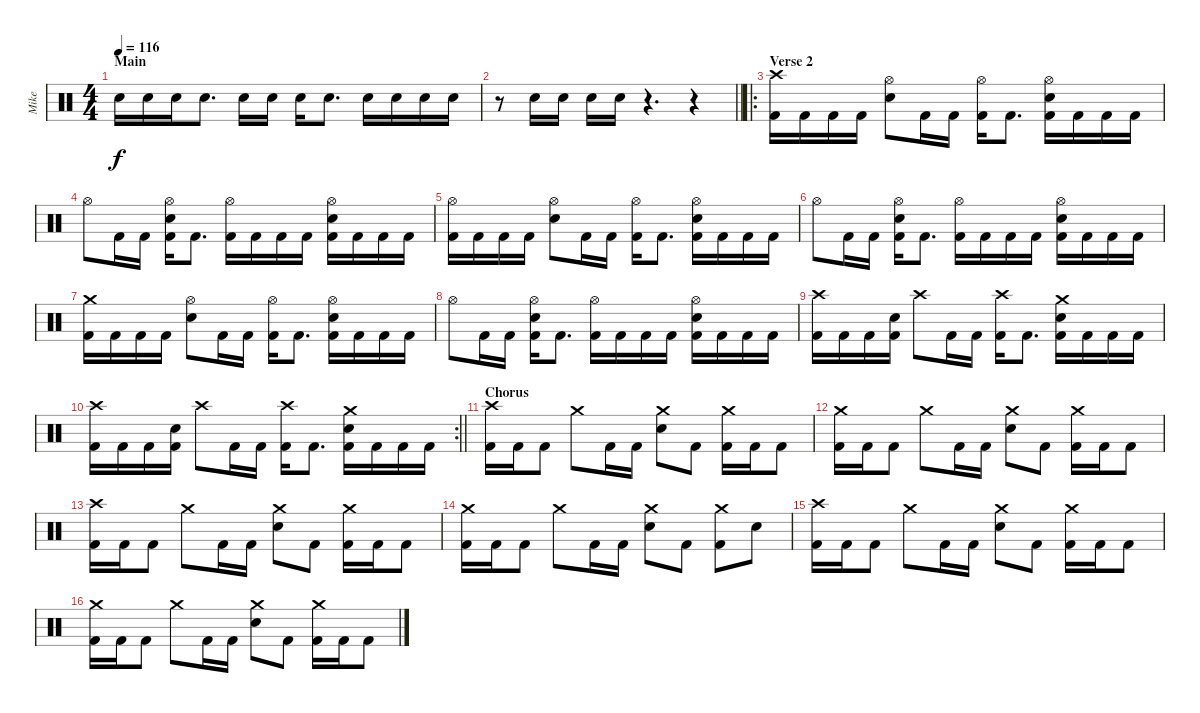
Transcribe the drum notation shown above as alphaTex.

\track ("Mike" "Mike") {instrument percussion}
\staff {score}
\articulation defaults
\ts (4 4)
\section ("" "Main")
\tempo 116
\clef neutral
\ks c "Snare (hit) 2".16{dy f} "Snare (hit) 2".16 "Snare (hit) 2".16 "Snare (hit) 2".8{d} "Snare (hit) 2".16 "Snare (hit) 2".16 "Snare (hit) 2".16 "Snare (hit) 2".8{d} "Snare (hit) 2".16 "Snare (hit) 2".16 "Snare (hit) 2".16 "Snare (hit) 2".16
|
\barLineRight lightlight
r.8 "Snare (hit) 2".16 "Snare (hit) 2".16 "Snare (hit) 2".16 "Snare (hit) 2".16 r.4{d} r.4 |
\ro
\section ("" "Verse 2")
("Crash high (hit)" "Kick (hit) 2").16 "Kick (hit) 2".16 "Kick (hit) 2".16 "Kick (hit) 2".16 ("Snare (hit) 2" "Hi-Hat (open)").8 "Kick (hit) 2".16 "Kick (hit) 2".16 ("Hi-Hat (open)" "Kick (hit) 2").16 "Kick (hit) 2".8{d} ("Snare (hit) 2" "Hi-Hat (open)" "Kick (hit) 2").16 "Kick (hit) 2".16 "Kick (hit) 2".16 "Kick (hit) 2".16 |
"Hi-Hat (open)".8 "Kick (hit) 2".16 "Kick (hit) 2".16 ("Snare (hit) 2" "Hi-Hat (open)" "Kick (hit) 2").16 "Kick (hit) 2".8{d} ("Hi-Hat (open)" "Kick (hit) 2").16 "Kick (hit) 2".16 "Kick (hit) 2".16 "Kick (hit) 2".16 ("Snare (hit) 2" "Hi-Hat (open)" "Kick (hit) 2").16 "Kick (hit) 2".16 "Kick (hit) 2".16 "Kick (hit) 2".16 |
("Hi-Hat (open)" "Kick (hit) 2").16 "Kick (hit) 2".16 "Kick (hit) 2".16 "Kick (hit) 2".16 ("Snare (hit) 2" "Hi-Hat (open)").8 "Kick (hit) 2".16 "Kick (hit) 2".16 ("Hi-Hat (open)" "Kick (hit) 2").16 "Kick (hit) 2".8{d} ("Snare (hit) 2" "Hi-Hat (open)" "Kick (hit) 2").16 "Kick (hit) 2".16 "Kick (hit) 2".16 "Kick (hit) 2".16 |
"Hi-Hat (open)".8 "Kick (hit) 2".16 "Kick (hit) 2".16 ("Snare (hit) 2" "Hi-Hat (open)" "Kick (hit) 2").16 "Kick (hit) 2".8{d} ("Hi-Hat (open)" "Kick (hit) 2").16 "Kick (hit) 2".16 "Kick (hit) 2".16 "Kick (hit) 2".16 ("Snare (hit) 2" "Hi-Hat (open)" "Kick (hit) 2").16 "Kick (hit) 2".16 "Kick (hit) 2".16 "Kick (hit) 2".16 |
("Crash medium (hit)" "Kick (hit) 2").16 "Kick (hit) 2".16 "Kick (hit) 2".16 "Kick (hit) 2".16 ("Snare (hit) 2" "Hi-Hat (open)").8 "Kick (hit) 2".16 "Kick (hit) 2".16 ("Hi-Hat (open)" "Kick (hit) 2").16 "Kick (hit) 2".8{d} ("Snare (hit) 2" "Hi-Hat (open)" "Kick (hit) 2").16 "Kick (hit) 2".16 "Kick (hit) 2".16 "Kick (hit) 2".16 |
"Hi-Hat (open)".8 "Kick (hit) 2".16 "Kick (hit) 2".16 ("Snare (hit) 2" "Hi-Hat (open)" "Kick (hit) 2").16 "Kick (hit) 2".8{d} ("Hi-Hat (open)" "Kick (hit) 2").16 "Kick (hit) 2".16 "Kick (hit) 2".16 "Kick (hit) 2".16 ("Snare (hit) 2" "Hi-Hat (open)" "Kick (hit) 2").16 "Kick (hit) 2".16 "Kick (hit) 2".16 "Kick (hit) 2".16 |
("Crash high (hit)" "Kick (hit) 2").16 "Kick (hit) 2".16 "Kick (hit) 2".16 ("Snare (hit) 2" "Kick (hit) 2").16 "Crash high (hit)".8 "Kick (hit) 2".16 "Kick (hit) 2".16 ("Crash high (hit)" "Kick (hit) 2").16 "Kick (hit) 2".8{d} ("Crash medium (hit)" "Snare (hit) 2" "Kick (hit) 2").16 "Kick (hit) 2".16 "Kick (hit) 2".16 "Kick (hit) 2".16 |
\rc 2
\barLineRight lightlight
("Crash high (hit)" "Kick (hit) 2").16 "Kick (hit) 2".16 "Kick (hit) 2".16 ("Snare (hit) 2" "Kick (hit) 2").16 "Crash high (hit)".8 "Kick (hit) 2".16 "Kick (hit) 2".16 ("Crash high (hit)" "Kick (hit) 2").16 "Kick (hit) 2".8{d} ("Crash medium (hit)" "Snare (hit) 2" "Kick (hit) 2").16 "Kick (hit) 2".16 "Kick (hit) 2".16 "Kick (hit) 2".16 |
\section ("" "Chorus")
("Crash high (hit)" "Kick (hit) 2").16 "Kick (hit) 2".16 "Kick (hit) 2".8 "Crash medium (hit)".8 "Kick (hit) 2".16 "Kick (hit) 2".16 ("Crash medium (hit)" "Snare (hit) 2").8 "Kick (hit) 2".8 ("Crash medium (hit)" "Kick (hit) 2").16 "Kick (hit) 2".16 "Kick (hit) 2".8 |
("Crash medium (hit)" "Kick (hit) 2").16 "Kick (hit) 2".16 "Kick (hit) 2".8 "Crash medium (hit)".8 "Kick (hit) 2".16 "Kick (hit) 2".16 ("Crash medium (hit)" "Snare (hit) 2").8 "Kick (hit) 2".8 ("Crash medium (hit)" "Kick (hit) 2").16 "Kick (hit) 2".16 "Kick (hit) 2".8 |
("Crash high (hit)" "Kick (hit) 2").16 "Kick (hit) 2".16 "Kick (hit) 2".8 "Crash medium (hit)".8 "Kick (hit) 2".16 "Kick (hit) 2".16 ("Crash medium (hit)" "Snare (hit) 2").8 "Kick (hit) 2".8 ("Crash medium (hit)" "Kick (hit) 2").16 "Kick (hit) 2".16 "Kick (hit) 2".8 |
("Crash medium (hit)" "Kick (hit) 2").16 "Kick (hit) 2".16 "Kick (hit) 2".8 "Crash medium (hit)".8 "Kick (hit) 2".16 "Kick (hit) 2".16 ("Crash medium (hit)" "Snare (hit) 2").8 "Kick (hit) 2".8 ("Crash medium (hit)" "Kick (hit) 2").8 "Snare (hit) 2".8 |
("Crash high (hit)" "Kick (hit) 2").16 "Kick (hit) 2".16 "Kick (hit) 2".8 "Crash medium (hit)".8 "Kick (hit) 2".16 "Kick (hit) 2".16 ("Crash medium (hit)" "Snare (hit) 2").8 "Kick (hit) 2".8 ("Crash medium (hit)" "Kick (hit) 2").16 "Kick (hit) 2".16 "Kick (hit) 2".8 |
("Crash medium (hit)" "Kick (hit) 2").16 "Kick (hit) 2".16 "Kick (hit) 2".8 "Crash medium (hit)".8 "Kick (hit) 2".16 "Kick (hit) 2".16 ("Crash medium (hit)" "Snare (hit) 2").8 "Kick (hit) 2".8 ("Crash medium (hit)" "Kick (hit) 2").16 "Kick (hit) 2".16 "Kick (hit) 2".8
